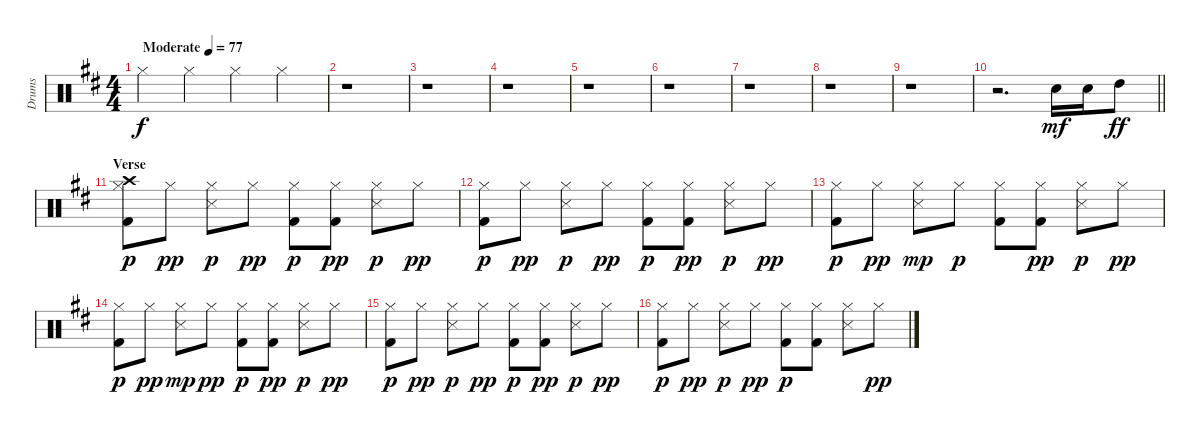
\track ("Drums" "Drums") {instrument percussion}
\staff {score}
\articulation defaults
\ts (4 4)
\tempo (77 "Moderate")
\clef neutral
\ks d "Hi-Hat (closed)".4{dy f} "Hi-Hat (closed)".4 "Hi-Hat (closed)".4 "Hi-Hat (closed)".4
|
r.1 |
r.1 |
r.1 |
r.1 |
r.1 |
r.1 |
r.1 |
r.1 |
\barLineRight lightlight
r.2{d} "Snare (hit) 2".16{dy mf} "Snare (hit) 2".16 "High Tom (hit)".8{dy ff} |
\section ("" "Verse")
("Kick (hit) 2" "Hi-Hat (closed)" "Crash high (hit)").8{dy p} "Hi-Hat (closed)".8{dy pp} ("Snare (side stick) 3" "Hi-Hat (closed)").8{dy p} "Hi-Hat (closed)".8{dy pp} ("Kick (hit) 2" "Hi-Hat (closed)").8{dy p} ("Kick (hit) 2" "Hi-Hat (closed)").8{dy pp} ("Snare (side stick) 3" "Hi-Hat (closed)").8{dy p} "Hi-Hat (closed)".8{dy pp} |
("Kick (hit) 2" "Hi-Hat (closed)").8{dy p} "Hi-Hat (closed)".8{dy pp} ("Snare (side stick) 3" "Hi-Hat (closed)").8{dy p} "Hi-Hat (closed)".8{dy pp} ("Kick (hit) 2" "Hi-Hat (closed)").8{dy p} ("Kick (hit) 2" "Hi-Hat (closed)").8{dy pp} ("Snare (side stick) 3" "Hi-Hat (closed)").8{dy p} "Hi-Hat (closed)".8{dy pp} |
("Kick (hit) 2" "Hi-Hat (closed)").8{dy p} "Hi-Hat (closed)".8{dy pp} ("Snare (side stick) 3" "Hi-Hat (closed)").8{dy mp} "Hi-Hat (closed)".8{dy p} ("Kick (hit) 2" "Hi-Hat (closed)").8 ("Kick (hit) 2" "Hi-Hat (closed)").8{dy pp} ("Snare (side stick) 3" "Hi-Hat (closed)").8{dy p} "Hi-Hat (closed)".8{dy pp} |
("Kick (hit) 2" "Hi-Hat (closed)").8{dy p} "Hi-Hat (closed)".8{dy pp} ("Snare (side stick) 3" "Hi-Hat (closed)").8{dy mp} "Hi-Hat (closed)".8{dy pp} ("Kick (hit) 2" "Hi-Hat (closed)").8{dy p} ("Kick (hit) 2" "Hi-Hat (closed)").8{dy pp} ("Snare (side stick) 3" "Hi-Hat (closed)").8{dy p} "Hi-Hat (closed)".8{dy pp} |
("Kick (hit) 2" "Hi-Hat (closed)").8{dy p} "Hi-Hat (closed)".8{dy pp} ("Snare (side stick) 3" "Hi-Hat (closed)").8{dy p} "Hi-Hat (closed)".8{dy pp} ("Kick (hit) 2" "Hi-Hat (closed)").8{dy p} ("Kick (hit) 2" "Hi-Hat (closed)").8{dy pp} ("Snare (side stick) 3" "Hi-Hat (closed)").8{dy p} "Hi-Hat (closed)".8{dy pp} |
("Kick (hit) 2" "Hi-Hat (closed)").8{dy p} "Hi-Hat (closed)".8{dy pp} ("Snare (side stick) 3" "Hi-Hat (closed)").8{dy p} "Hi-Hat (closed)".8{dy pp} ("Kick (hit) 2" "Hi-Hat (closed)").8{dy p} ("Kick (hit) 2" "Hi-Hat (closed)").8 ("Snare (side stick) 3" "Hi-Hat (closed)").8 "Hi-Hat (closed)".8{dy pp}
